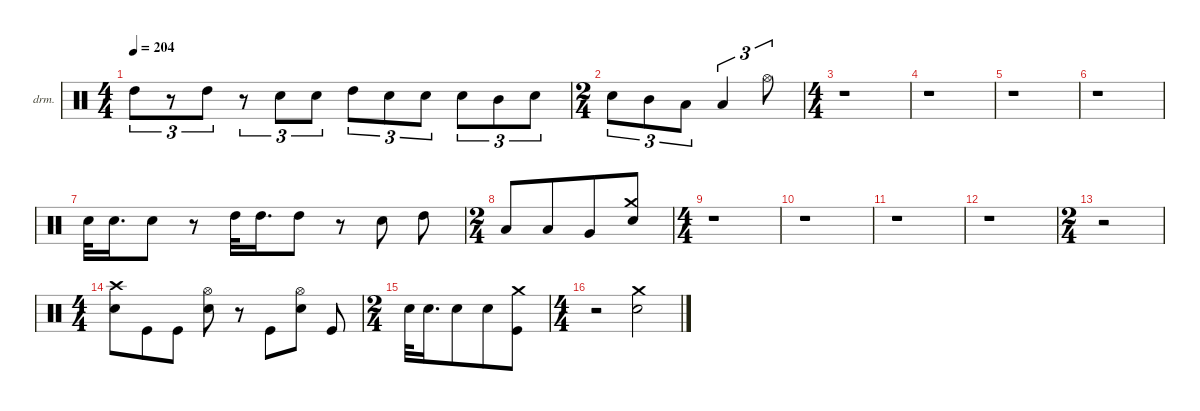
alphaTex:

\defaultSystemsLayout 4
\hideDynamics
\bracketExtendMode nobrackets
\firstSystemTrackNameOrientation horizontal
\otherSystemsTrackNameOrientation horizontal
\track ("Drumkit" "drm.") {instrument percussion}
\staff {score}
\articulation defaults
\ts (4 4)
\beaming (8 2 2 2 2)
\tempo 204
\clef neutral
\ks c "High Tom (hit)".8{tu (3 2) dy f beam Down}
r.8{tu (3 2) beam Down} "High Tom (hit)".8{tu (3 2) beam Down} r.8{tu (3 2) beam Down} "Snare (hit) 2".8{tu (3 2) dy mp beam Down} "Snare (hit) 2".8{tu (3 2) beam Down} "High Tom (hit)".8{tu (3 2) dy f beam Down} "Snare (hit) 2".8{tu (3 2) dy mp beam Down} "Snare (hit) 2".8{tu (3 2) dy mf beam Down} "Snare (hit) 2".8{tu (3 2) dy f beam Down} "Mid Tom (hit)".8{tu (3 2) dy mf beam Down} "Snare (hit) 2".8{tu (3 2) dy f beam Down} |
\ts (2 4)
\beaming (8 2 2)
"Snare (hit) 2".8{tu (3 2) beam Down} "Mid Tom (hit)".8{tu (3 2) beam Down} "Low Tom (hit)".8{tu (3 2) beam Down} "Low Tom (hit)".4{tu (3 2) beam Up} "Hi-Hat (open)".8{tu (3 2) beam Down} |
\ts (4 4)
\beaming (8 2 2 2 2)
r.1{beam Down} |
r.1{beam Down} |
r.1{beam Down} |
r.1{beam Down} |
\beaming (8 3 2 2 1)
"Snare (hit) 2".32{beam Down} "Snare (hit) 2".16{d dy mp beam Down} "Snare (hit) 2".8{beam Down} r.8{beam Down} "High Tom (hit)".32{dy f beam Down} "High Tom (hit)".16{d beam Down} "High Tom (hit)".8{dy mp beam Down} r.8{beam Down} "Snare (hit) 2".8{dy f beam Down} "High Tom (hit)".8{beam Down} |
\ts (2 4)
\beaming (8 4)
"Low Tom (hit)".8{beam Up} "Low Tom (hit)".8{beam Up} "Very Low Tom (hit)".8{beam Up} ("Snare (hit) 2" "Crash medium (hit)").8{beam Up} |
\ts (4 4)
\beaming (8 3 2 2 1)
r.1{beam Down} |
\beaming (8 2 2 2 2)
r.1{beam Down} |
r.1{beam Down} |
r.1{beam Down} |
\ts (2 4)
\beaming (8 2 2)
r.2{beam Down} |
\ts (4 4)
\beaming (8 3 2 2 1)
("Snare (hit) 2" "Crash high (hit)").8{beam Down} "Kick (hit)".8{beam Down} "Kick (hit)".8{beam Down} ("Hi-Hat (open)" "Snare (hit) 2").8{dy mp beam Down} r.8{beam Down} "Kick (hit)".8{dy f beam Down} ("Hi-Hat (open)" "Snare (hit) 2").8{dy mp beam Down} "Kick (hit)".8{beam Up} |
\ts (2 4)
\beaming (8 4)
"Snare (hit) 2".32{dy f beam Down} "Snare (hit) 2".16{d beam Down} "Snare (hit) 2".8{beam Down} "Snare (hit) 2".8{beam Down} ("Crash medium (hit)" "Kick (hit)").8{beam Down} |
\ts (4 4)
\beaming (8 2 2 2 2)
r.2{beam Down} ("Snare (hit) 2" "Crash medium (hit)").2{beam Down}
